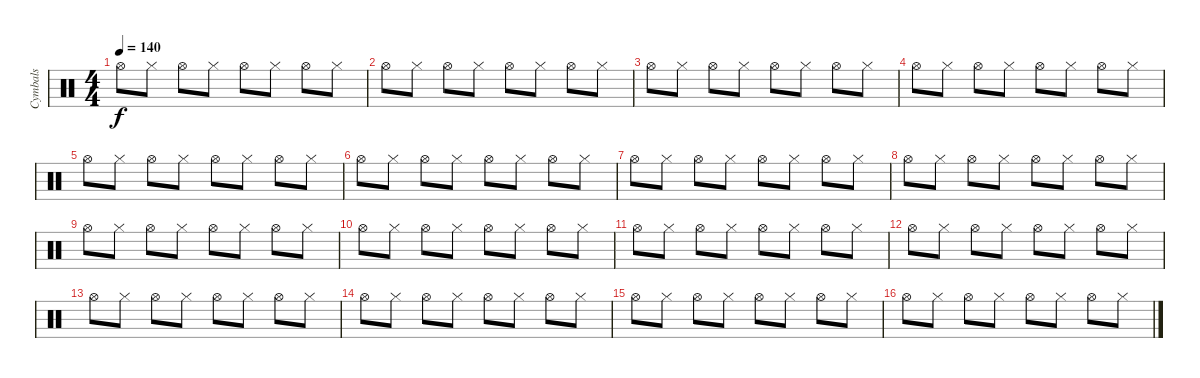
\track ("Cymbals" "Cymbals") {instrument percussion}
\staff {score}
\articulation defaults
\ts (4 4)
\tempo 140
\clef neutral
\ks c "Hi-Hat (open)".8{dy f} "Hi-Hat (closed)".8 "Hi-Hat (open)".8 "Hi-Hat (closed)".8 "Hi-Hat (open)".8 "Hi-Hat (closed)".8 "Hi-Hat (open)".8 "Hi-Hat (closed)".8
|
"Hi-Hat (open)".8 "Hi-Hat (closed)".8 "Hi-Hat (open)".8 "Hi-Hat (closed)".8 "Hi-Hat (open)".8 "Hi-Hat (closed)".8 "Hi-Hat (open)".8 "Hi-Hat (closed)".8 |
"Hi-Hat (open)".8 "Hi-Hat (closed)".8 "Hi-Hat (open)".8 "Hi-Hat (closed)".8 "Hi-Hat (open)".8 "Hi-Hat (closed)".8 "Hi-Hat (open)".8 "Hi-Hat (closed)".8 |
"Hi-Hat (open)".8 "Hi-Hat (closed)".8 "Hi-Hat (open)".8 "Hi-Hat (closed)".8 "Hi-Hat (open)".8 "Hi-Hat (closed)".8 "Hi-Hat (open)".8 "Hi-Hat (closed)".8 |
"Hi-Hat (open)".8 "Hi-Hat (closed)".8 "Hi-Hat (open)".8 "Hi-Hat (closed)".8 "Hi-Hat (open)".8 "Hi-Hat (closed)".8 "Hi-Hat (open)".8 "Hi-Hat (closed)".8 |
"Hi-Hat (open)".8 "Hi-Hat (closed)".8 "Hi-Hat (open)".8 "Hi-Hat (closed)".8 "Hi-Hat (open)".8 "Hi-Hat (closed)".8 "Hi-Hat (open)".8 "Hi-Hat (closed)".8 |
"Hi-Hat (open)".8 "Hi-Hat (closed)".8 "Hi-Hat (open)".8 "Hi-Hat (closed)".8 "Hi-Hat (open)".8 "Hi-Hat (closed)".8 "Hi-Hat (open)".8 "Hi-Hat (closed)".8 |
"Hi-Hat (open)".8 "Hi-Hat (closed)".8 "Hi-Hat (open)".8 "Hi-Hat (closed)".8 "Hi-Hat (open)".8 "Hi-Hat (closed)".8 "Hi-Hat (open)".8 "Hi-Hat (closed)".8 |
"Hi-Hat (open)".8 "Hi-Hat (closed)".8 "Hi-Hat (open)".8 "Hi-Hat (closed)".8 "Hi-Hat (open)".8 "Hi-Hat (closed)".8 "Hi-Hat (open)".8 "Hi-Hat (closed)".8 |
"Hi-Hat (open)".8 "Hi-Hat (closed)".8 "Hi-Hat (open)".8 "Hi-Hat (closed)".8 "Hi-Hat (open)".8 "Hi-Hat (closed)".8 "Hi-Hat (open)".8 "Hi-Hat (closed)".8 |
"Hi-Hat (open)".8 "Hi-Hat (closed)".8 "Hi-Hat (open)".8 "Hi-Hat (closed)".8 "Hi-Hat (open)".8 "Hi-Hat (closed)".8 "Hi-Hat (open)".8 "Hi-Hat (closed)".8 |
"Hi-Hat (open)".8 "Hi-Hat (closed)".8 "Hi-Hat (open)".8 "Hi-Hat (closed)".8 "Hi-Hat (open)".8 "Hi-Hat (closed)".8 "Hi-Hat (open)".8 "Hi-Hat (closed)".8 |
"Hi-Hat (open)".8 "Hi-Hat (closed)".8 "Hi-Hat (open)".8 "Hi-Hat (closed)".8 "Hi-Hat (open)".8 "Hi-Hat (closed)".8 "Hi-Hat (open)".8 "Hi-Hat (closed)".8 |
"Hi-Hat (open)".8 "Hi-Hat (closed)".8 "Hi-Hat (open)".8 "Hi-Hat (closed)".8 "Hi-Hat (open)".8 "Hi-Hat (closed)".8 "Hi-Hat (open)".8 "Hi-Hat (closed)".8 |
"Hi-Hat (open)".8 "Hi-Hat (closed)".8 "Hi-Hat (open)".8 "Hi-Hat (closed)".8 "Hi-Hat (open)".8 "Hi-Hat (closed)".8 "Hi-Hat (open)".8 "Hi-Hat (closed)".8 |
"Hi-Hat (open)".8 "Hi-Hat (closed)".8 "Hi-Hat (open)".8 "Hi-Hat (closed)".8 "Hi-Hat (open)".8 "Hi-Hat (closed)".8 "Hi-Hat (open)".8 "Hi-Hat (closed)".8
